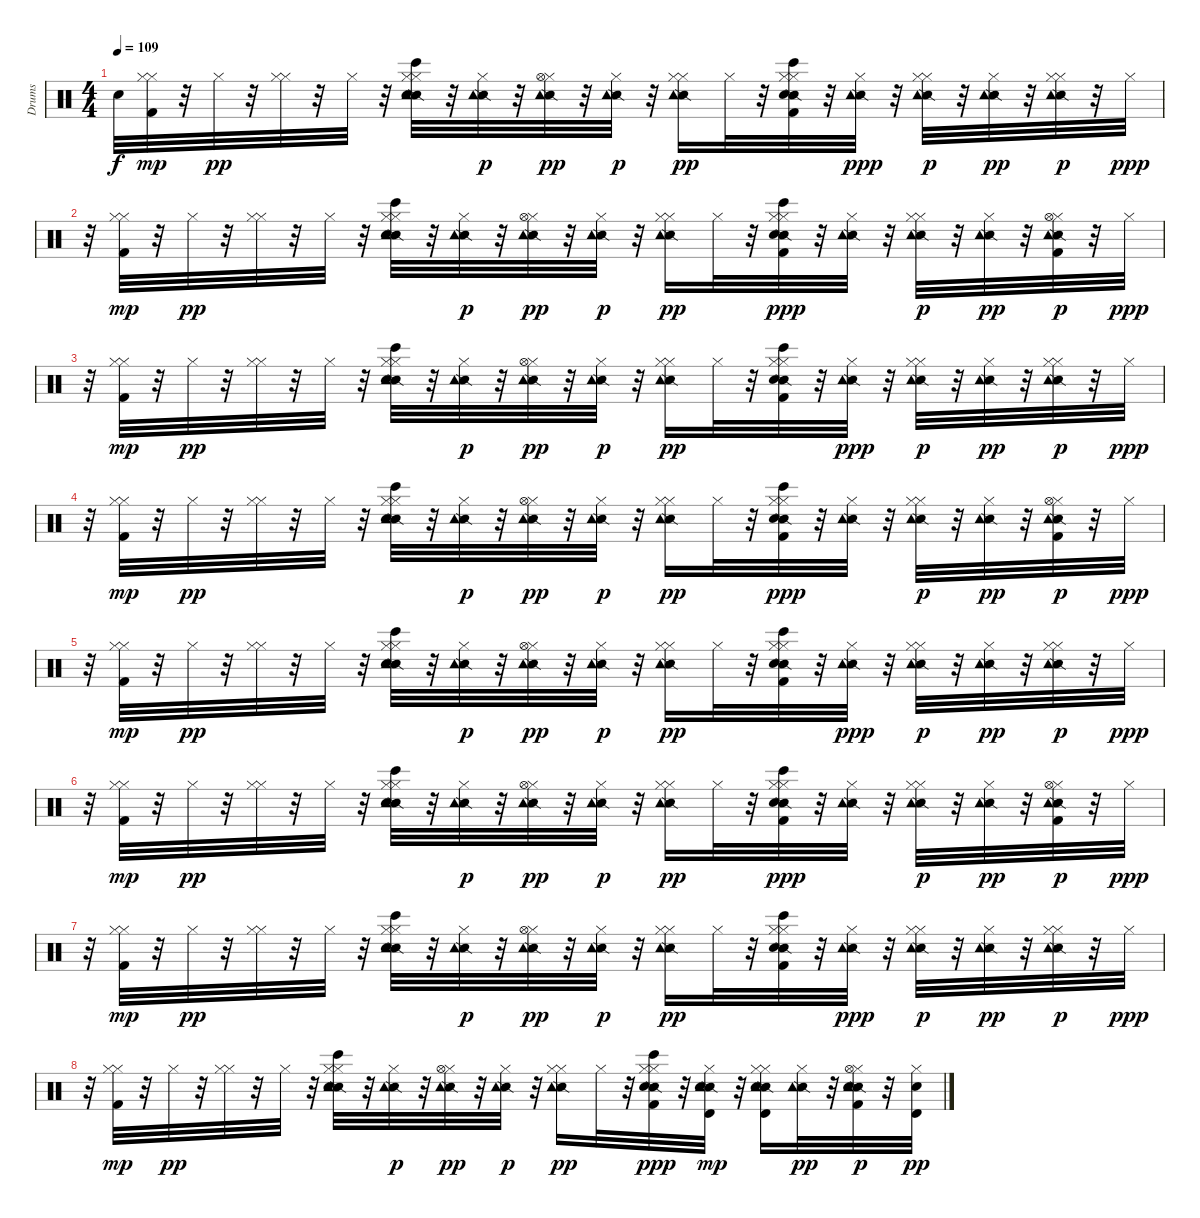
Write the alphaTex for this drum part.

\track ("Drums" "Drums") {instrument percussion}
\staff {score}
\articulation defaults
\ts (4 4)
\tempo 109
\clef neutral
\ks c "Snare (hit)"{t}.32{dy f}
("Kick (hit) 2" "Hi-Hat (closed)" "Hi-Hat (closed)").32{dy mp} r.32 "Hi-Hat (closed)".32{dy pp} r.32 ("Hi-Hat (closed)" "Hi-Hat (closed)").32 r.32 "Hi-Hat (closed)".32 r.32 ("Hi-Hat (closed)" "Bongo High (hit)" "Snare (side stick) 2" "Electric Snare (hit)" "Hi-Hat (closed)" "Tambourine (hit)").32 r.32 ("Hi-Hat (closed)" "Snare (side stick) 2" "Tambourine (hit)").32{dy p} r.32 ("Hi-Hat (closed)" "Snare (side stick) 2" "Hi-Hat (open)" "Tambourine (hit)").32{dy pp} r.32 ("Hi-Hat (closed)" "Snare (side stick) 2" "Tambourine (hit)").32{dy p} r.32 ("Hi-Hat (closed)" "Snare (side stick) 2" "Hi-Hat (closed)" "Tambourine (hit)").16{dy pp} "Hi-Hat (closed)".32 r.32 ("Kick (hit) 2" "Hi-Hat (closed)" "Bongo High (hit)" "Snare (side stick) 2" "Electric Snare (hit)" "Hi-Hat (closed)").32 r.32 ("Hi-Hat (closed)" "Snare (side stick) 2" "Tambourine (hit)").32{dy ppp} r.32 ("Hi-Hat (closed)" "Snare (side stick) 2" "Hi-Hat (closed)" "Tambourine (hit)").32{dy p} r.32 ("Hi-Hat (closed)" "Snare (side stick) 2" "Tambourine (hit)").32{dy pp} r.32 ("Hi-Hat (closed)" "Snare (side stick) 2" "Hi-Hat (closed)" "Tambourine (hit)").32{dy p} r.32 "Hi-Hat (closed)".32{dy ppp} |
r.32 ("Kick (hit) 2" "Hi-Hat (closed)" "Hi-Hat (closed)").32{dy mp} r.32 "Hi-Hat (closed)".32{dy pp} r.32 ("Hi-Hat (closed)" "Hi-Hat (closed)").32 r.32 "Hi-Hat (closed)".32 r.32 ("Hi-Hat (closed)" "Bongo High (hit)" "Snare (side stick) 2" "Electric Snare (hit)" "Hi-Hat (closed)" "Tambourine (hit)").32 r.32 ("Hi-Hat (closed)" "Snare (side stick) 2" "Tambourine (hit)").32{dy p} r.32 ("Hi-Hat (closed)" "Snare (side stick) 2" "Hi-Hat (open)" "Tambourine (hit)").32{dy pp} r.32 ("Hi-Hat (closed)" "Snare (side stick) 2" "Tambourine (hit)").32{dy p} r.32 ("Hi-Hat (closed)" "Snare (side stick) 2" "Hi-Hat (closed)" "Tambourine (hit)").16{dy pp} "Hi-Hat (closed)".32 r.32 ("Kick (hit) 2" "Hi-Hat (closed)" "Bongo High (hit)" "Snare (side stick) 2" "Electric Snare (hit)" "Hi-Hat (closed)").32{dy ppp} r.32 ("Hi-Hat (closed)" "Snare (side stick) 2" "Tambourine (hit)").32 r.32 ("Hi-Hat (closed)" "Snare (side stick) 2" "Hi-Hat (closed)" "Tambourine (hit)").32{dy p} r.32 ("Hi-Hat (closed)" "Snare (side stick) 2" "Tambourine (hit)").32{dy pp} r.32 ("Kick (hit) 2" "Hi-Hat (closed)" "Snare (side stick) 2" "Hi-Hat (open)" "Tambourine (hit)").32{dy p} r.32 "Hi-Hat (closed)".32{dy ppp} |
r.32 ("Kick (hit) 2" "Hi-Hat (closed)" "Hi-Hat (closed)").32{dy mp} r.32 "Hi-Hat (closed)".32{dy pp} r.32 ("Hi-Hat (closed)" "Hi-Hat (closed)").32 r.32 "Hi-Hat (closed)".32 r.32 ("Hi-Hat (closed)" "Bongo High (hit)" "Snare (side stick) 2" "Electric Snare (hit)" "Hi-Hat (closed)" "Tambourine (hit)").32 r.32 ("Hi-Hat (closed)" "Snare (side stick) 2" "Tambourine (hit)").32{dy p} r.32 ("Hi-Hat (closed)" "Snare (side stick) 2" "Hi-Hat (open)" "Tambourine (hit)").32{dy pp} r.32 ("Hi-Hat (closed)" "Snare (side stick) 2" "Tambourine (hit)").32{dy p} r.32 ("Hi-Hat (closed)" "Snare (side stick) 2" "Hi-Hat (closed)" "Tambourine (hit)").16{dy pp} "Hi-Hat (closed)".32 r.32 ("Kick (hit) 2" "Hi-Hat (closed)" "Bongo High (hit)" "Snare (side stick) 2" "Electric Snare (hit)" "Hi-Hat (closed)").32 r.32 ("Hi-Hat (closed)" "Snare (side stick) 2" "Tambourine (hit)").32{dy ppp} r.32 ("Hi-Hat (closed)" "Snare (side stick) 2" "Hi-Hat (closed)" "Tambourine (hit)").32{dy p} r.32 ("Hi-Hat (closed)" "Snare (side stick) 2" "Tambourine (hit)").32{dy pp} r.32 ("Hi-Hat (closed)" "Snare (side stick) 2" "Hi-Hat (closed)" "Tambourine (hit)").32{dy p} r.32 "Hi-Hat (closed)".32{dy ppp} |
r.32 ("Kick (hit) 2" "Hi-Hat (closed)" "Hi-Hat (closed)").32{dy mp} r.32 "Hi-Hat (closed)".32{dy pp} r.32 ("Hi-Hat (closed)" "Hi-Hat (closed)").32 r.32 "Hi-Hat (closed)".32 r.32 ("Hi-Hat (closed)" "Bongo High (hit)" "Snare (side stick) 2" "Electric Snare (hit)" "Hi-Hat (closed)" "Tambourine (hit)").32 r.32 ("Hi-Hat (closed)" "Snare (side stick) 2" "Tambourine (hit)").32{dy p} r.32 ("Hi-Hat (closed)" "Snare (side stick) 2" "Hi-Hat (open)" "Tambourine (hit)").32{dy pp} r.32 ("Hi-Hat (closed)" "Snare (side stick) 2" "Tambourine (hit)").32{dy p} r.32 ("Hi-Hat (closed)" "Snare (side stick) 2" "Hi-Hat (closed)" "Tambourine (hit)").16{dy pp} "Hi-Hat (closed)".32 r.32 ("Kick (hit) 2" "Hi-Hat (closed)" "Bongo High (hit)" "Snare (side stick) 2" "Electric Snare (hit)" "Hi-Hat (closed)").32{dy ppp} r.32 ("Hi-Hat (closed)" "Snare (side stick) 2" "Tambourine (hit)").32 r.32 ("Hi-Hat (closed)" "Snare (side stick) 2" "Hi-Hat (closed)" "Tambourine (hit)").32{dy p} r.32 ("Hi-Hat (closed)" "Snare (side stick) 2" "Tambourine (hit)").32{dy pp} r.32 ("Kick (hit) 2" "Hi-Hat (closed)" "Snare (side stick) 2" "Hi-Hat (open)" "Tambourine (hit)").32{dy p} r.32 "Hi-Hat (closed)".32{dy ppp} |
r.32 ("Kick (hit) 2" "Hi-Hat (closed)" "Hi-Hat (closed)").32{dy mp} r.32 "Hi-Hat (closed)".32{dy pp} r.32 ("Hi-Hat (closed)" "Hi-Hat (closed)").32 r.32 "Hi-Hat (closed)".32 r.32 ("Hi-Hat (closed)" "Bongo High (hit)" "Snare (side stick) 2" "Electric Snare (hit)" "Hi-Hat (closed)" "Tambourine (hit)").32 r.32 ("Hi-Hat (closed)" "Snare (side stick) 2" "Tambourine (hit)").32{dy p} r.32 ("Hi-Hat (closed)" "Snare (side stick) 2" "Hi-Hat (open)" "Tambourine (hit)").32{dy pp} r.32 ("Hi-Hat (closed)" "Snare (side stick) 2" "Tambourine (hit)").32{dy p} r.32 ("Hi-Hat (closed)" "Snare (side stick) 2" "Hi-Hat (closed)" "Tambourine (hit)").16{dy pp} "Hi-Hat (closed)".32 r.32 ("Kick (hit) 2" "Hi-Hat (closed)" "Bongo High (hit)" "Snare (side stick) 2" "Electric Snare (hit)" "Hi-Hat (closed)").32 r.32 ("Hi-Hat (closed)" "Snare (side stick) 2" "Tambourine (hit)").32{dy ppp} r.32 ("Hi-Hat (closed)" "Snare (side stick) 2" "Hi-Hat (closed)" "Tambourine (hit)").32{dy p} r.32 ("Hi-Hat (closed)" "Snare (side stick) 2" "Tambourine (hit)").32{dy pp} r.32 ("Hi-Hat (closed)" "Snare (side stick) 2" "Hi-Hat (closed)" "Tambourine (hit)").32{dy p} r.32 "Hi-Hat (closed)".32{dy ppp} |
r.32 ("Kick (hit) 2" "Hi-Hat (closed)" "Hi-Hat (closed)").32{dy mp} r.32 "Hi-Hat (closed)".32{dy pp} r.32 ("Hi-Hat (closed)" "Hi-Hat (closed)").32 r.32 "Hi-Hat (closed)".32 r.32 ("Hi-Hat (closed)" "Bongo High (hit)" "Snare (side stick) 2" "Electric Snare (hit)" "Hi-Hat (closed)" "Tambourine (hit)").32 r.32 ("Hi-Hat (closed)" "Snare (side stick) 2" "Tambourine (hit)").32{dy p} r.32 ("Hi-Hat (closed)" "Snare (side stick) 2" "Hi-Hat (open)" "Tambourine (hit)").32{dy pp} r.32 ("Hi-Hat (closed)" "Snare (side stick) 2" "Tambourine (hit)").32{dy p} r.32 ("Hi-Hat (closed)" "Snare (side stick) 2" "Hi-Hat (closed)" "Tambourine (hit)").16{dy pp} "Hi-Hat (closed)".32 r.32 ("Kick (hit) 2" "Hi-Hat (closed)" "Bongo High (hit)" "Snare (side stick) 2" "Electric Snare (hit)" "Hi-Hat (closed)").32{dy ppp} r.32 ("Hi-Hat (closed)" "Snare (side stick) 2" "Tambourine (hit)").32 r.32 ("Hi-Hat (closed)" "Snare (side stick) 2" "Hi-Hat (closed)" "Tambourine (hit)").32{dy p} r.32 ("Hi-Hat (closed)" "Snare (side stick) 2" "Tambourine (hit)").32{dy pp} r.32 ("Kick (hit) 2" "Hi-Hat (closed)" "Snare (side stick) 2" "Hi-Hat (open)" "Tambourine (hit)").32{dy p} r.32 "Hi-Hat (closed)".32{dy ppp} |
r.32 ("Kick (hit) 2" "Hi-Hat (closed)" "Hi-Hat (closed)").32{dy mp} r.32 "Hi-Hat (closed)".32{dy pp} r.32 ("Hi-Hat (closed)" "Hi-Hat (closed)").32 r.32 "Hi-Hat (closed)".32 r.32 ("Hi-Hat (closed)" "Bongo High (hit)" "Snare (side stick) 2" "Electric Snare (hit)" "Hi-Hat (closed)" "Tambourine (hit)").32 r.32 ("Hi-Hat (closed)" "Snare (side stick) 2" "Tambourine (hit)").32{dy p} r.32 ("Hi-Hat (closed)" "Snare (side stick) 2" "Hi-Hat (open)" "Tambourine (hit)").32{dy pp} r.32 ("Hi-Hat (closed)" "Snare (side stick) 2" "Tambourine (hit)").32{dy p} r.32 ("Hi-Hat (closed)" "Snare (side stick) 2" "Hi-Hat (closed)" "Tambourine (hit)").16{dy pp} "Hi-Hat (closed)".32 r.32 ("Kick (hit) 2" "Hi-Hat (closed)" "Bongo High (hit)" "Snare (side stick) 2" "Electric Snare (hit)" "Hi-Hat (closed)").32 r.32 ("Hi-Hat (closed)" "Snare (side stick) 2" "Tambourine (hit)").32{dy ppp} r.32 ("Hi-Hat (closed)" "Snare (side stick) 2" "Hi-Hat (closed)" "Tambourine (hit)").32{dy p} r.32 ("Hi-Hat (closed)" "Snare (side stick) 2" "Tambourine (hit)").32{dy pp} r.32 ("Hi-Hat (closed)" "Snare (side stick) 2" "Hi-Hat (closed)" "Tambourine (hit)").32{dy p} r.32 "Hi-Hat (closed)".32{dy ppp} |
r.32 ("Kick (hit) 2" "Hi-Hat (closed)" "Hi-Hat (closed)").32{dy mp} r.32 "Hi-Hat (closed)".32{dy pp} r.32 ("Hi-Hat (closed)" "Hi-Hat (closed)").32 r.32 "Hi-Hat (closed)".32 r.32 ("Hi-Hat (closed)" "Bongo High (hit)" "Snare (side stick) 2" "Electric Snare (hit)" "Hi-Hat (closed)" "Tambourine (hit)").32 r.32 ("Hi-Hat (closed)" "Snare (side stick) 2" "Tambourine (hit)").32{dy p} r.32 ("Hi-Hat (closed)" "Snare (side stick) 2" "Hi-Hat (open)" "Tambourine (hit)").32{dy pp} r.32 ("Hi-Hat (closed)" "Snare (side stick) 2" "Tambourine (hit)").32{dy p} r.32 ("Hi-Hat (closed)" "Snare (side stick) 2" "Hi-Hat (closed)" "Tambourine (hit)").16{dy pp} "Hi-Hat (closed)".32 r.32 ("Kick (hit) 2" "Hi-Hat (closed)" "Bongo High (hit)" "Snare (side stick) 2" "Electric Snare (hit)" "Hi-Hat (closed)").32{dy ppp} r.32 ("Hi-Hat (closed)" "Snare (side stick) 2" "Electric Snare (hit)" "Tambourine (hit)" "Timbale high (hit)").32{dy mp} r.32 ("Hi-Hat (closed)" "Snare (side stick) 2" "Electric Snare (hit)" "Hi-Hat (closed)" "Tambourine (hit)" "Timbale high (hit)").16 ("Hi-Hat (closed)" "Snare (side stick) 2" "Tambourine (hit)").32{dy pp} r.32 ("Kick (hit) 2" "Hi-Hat (closed)" "Snare (side stick) 2" "Electric Snare (hit)" "Hi-Hat (open)" "Tambourine (hit)").32{dy p} r.32 ("Hi-Hat (closed)" "Electric Snare (hit)" "Timbale high (hit)").32{dy pp}
